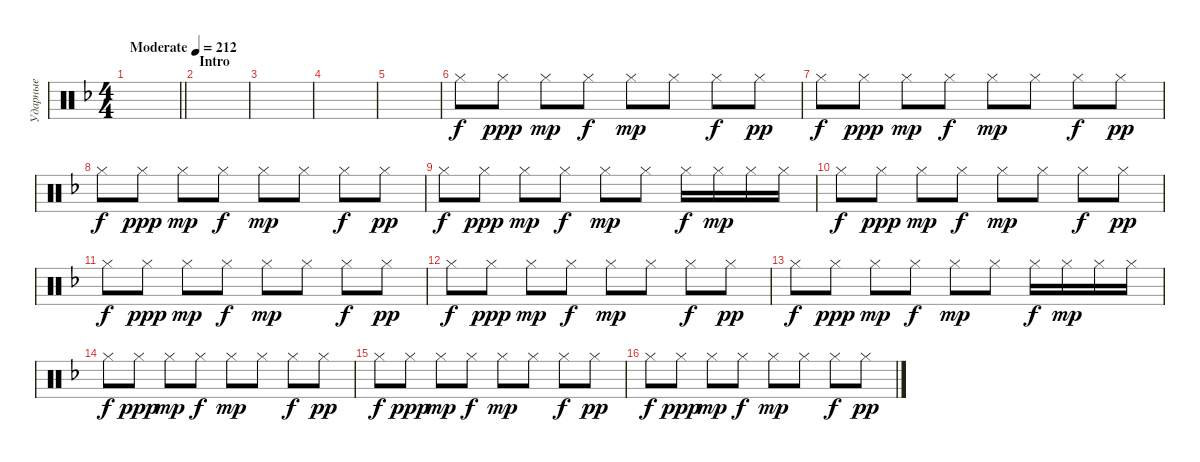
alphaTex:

\track ("Ударные" "Ударные") {instrument percussion}
\staff {score}
\articulation defaults
\ts (4 4)
\tempo (212 "Moderate")
\clef neutral
\barLineRight lightlight
\ks dminor
|
\section ("" "Intro")
|
|
|
|
"Hi-Hat (closed)".8 "Hi-Hat (closed)".8{dy ppp} "Hi-Hat (closed)".8{dy mp} "Hi-Hat (closed)".8{dy f} "Hi-Hat (closed)".8{dy mp} "Hi-Hat (closed)".8 "Hi-Hat (closed)".8{dy f} "Hi-Hat (closed)".8{dy pp} |
"Hi-Hat (closed)".8{dy f} "Hi-Hat (closed)".8{dy ppp} "Hi-Hat (closed)".8{dy mp} "Hi-Hat (closed)".8{dy f} "Hi-Hat (closed)".8{dy mp} "Hi-Hat (closed)".8 "Hi-Hat (closed)".8{dy f} "Hi-Hat (closed)".8{dy pp} |
"Hi-Hat (closed)".8{dy f} "Hi-Hat (closed)".8{dy ppp} "Hi-Hat (closed)".8{dy mp} "Hi-Hat (closed)".8{dy f} "Hi-Hat (closed)".8{dy mp} "Hi-Hat (closed)".8 "Hi-Hat (closed)".8{dy f} "Hi-Hat (closed)".8{dy pp} |
"Hi-Hat (closed)".8{dy f} "Hi-Hat (closed)".8{dy ppp} "Hi-Hat (closed)".8{dy mp} "Hi-Hat (closed)".8{dy f} "Hi-Hat (closed)".8{dy mp} "Hi-Hat (closed)".8 "Hi-Hat (closed)".16{dy f} "Hi-Hat (closed)".16{dy mp} "Hi-Hat (closed)".16 "Hi-Hat (closed)".16 |
"Hi-Hat (closed)".8{dy f} "Hi-Hat (closed)".8{dy ppp} "Hi-Hat (closed)".8{dy mp} "Hi-Hat (closed)".8{dy f} "Hi-Hat (closed)".8{dy mp} "Hi-Hat (closed)".8 "Hi-Hat (closed)".8{dy f} "Hi-Hat (closed)".8{dy pp} |
"Hi-Hat (closed)".8{dy f} "Hi-Hat (closed)".8{dy ppp} "Hi-Hat (closed)".8{dy mp} "Hi-Hat (closed)".8{dy f} "Hi-Hat (closed)".8{dy mp} "Hi-Hat (closed)".8 "Hi-Hat (closed)".8{dy f} "Hi-Hat (closed)".8{dy pp} |
"Hi-Hat (closed)".8{dy f} "Hi-Hat (closed)".8{dy ppp} "Hi-Hat (closed)".8{dy mp} "Hi-Hat (closed)".8{dy f} "Hi-Hat (closed)".8{dy mp} "Hi-Hat (closed)".8 "Hi-Hat (closed)".8{dy f} "Hi-Hat (closed)".8{dy pp} |
"Hi-Hat (closed)".8{dy f} "Hi-Hat (closed)".8{dy ppp} "Hi-Hat (closed)".8{dy mp} "Hi-Hat (closed)".8{dy f} "Hi-Hat (closed)".8{dy mp} "Hi-Hat (closed)".8 "Hi-Hat (closed)".16{dy f} "Hi-Hat (closed)".16{dy mp} "Hi-Hat (closed)".16 "Hi-Hat (closed)".16 |
"Hi-Hat (closed)".8{dy f} "Hi-Hat (closed)".8{dy ppp} "Hi-Hat (closed)".8{dy mp} "Hi-Hat (closed)".8{dy f} "Hi-Hat (closed)".8{dy mp} "Hi-Hat (closed)".8 "Hi-Hat (closed)".8{dy f} "Hi-Hat (closed)".8{dy pp} |
"Hi-Hat (closed)".8{dy f} "Hi-Hat (closed)".8{dy ppp} "Hi-Hat (closed)".8{dy mp} "Hi-Hat (closed)".8{dy f} "Hi-Hat (closed)".8{dy mp} "Hi-Hat (closed)".8 "Hi-Hat (closed)".8{dy f} "Hi-Hat (closed)".8{dy pp} |
"Hi-Hat (closed)".8{dy f} "Hi-Hat (closed)".8{dy ppp} "Hi-Hat (closed)".8{dy mp} "Hi-Hat (closed)".8{dy f} "Hi-Hat (closed)".8{dy mp} "Hi-Hat (closed)".8 "Hi-Hat (closed)".8{dy f} "Hi-Hat (closed)".8{dy pp}
